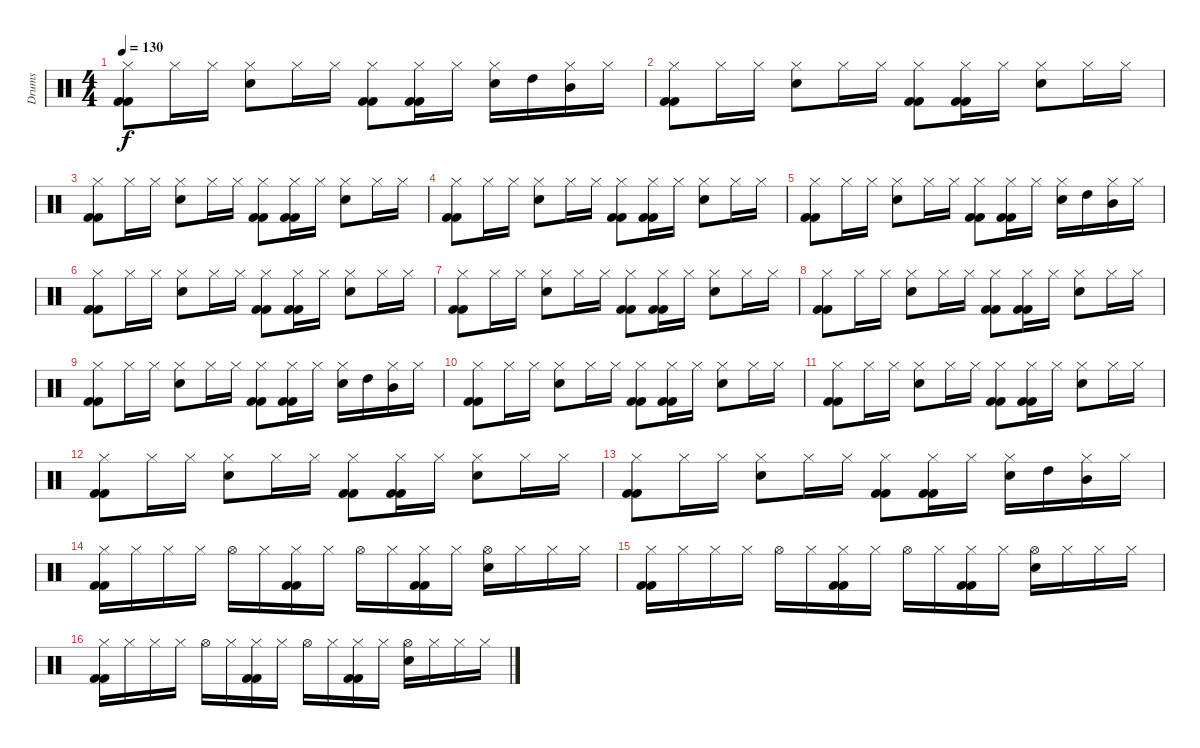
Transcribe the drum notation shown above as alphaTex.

\track ("Drums" "Drums") {instrument percussion}
\staff {score}
\articulation defaults
\ts (4 4)
\tempo 130
\clef neutral
\ks c
("Hi-Hat (closed)" "Kick (hit) 2" "Kick (hit) 2").8{dy f} "Hi-Hat (closed)".16 "Hi-Hat (closed)".16 ("Hi-Hat (closed)" "Electric Snare (hit)").8 "Hi-Hat (closed)".16 "Hi-Hat (closed)".16 ("Hi-Hat (closed)" "Kick (hit) 2" "Kick (hit) 2").8 ("Hi-Hat (closed)" "Kick (hit) 2" "Kick (hit) 2").16 "Hi-Hat (closed)".16 ("Hi-Hat (closed)" "Electric Snare (hit)").16 "High Tom (hit)".16 ("Hi-Hat (closed)" "Mid Tom (hit)").16 "Hi-Hat (closed)".16 |
("Hi-Hat (closed)" "Kick (hit) 2" "Kick (hit) 2").8 "Hi-Hat (closed)".16 "Hi-Hat (closed)".16 ("Hi-Hat (closed)" "Electric Snare (hit)").8 "Hi-Hat (closed)".16 "Hi-Hat (closed)".16 ("Hi-Hat (closed)" "Kick (hit) 2" "Kick (hit) 2").8 ("Hi-Hat (closed)" "Kick (hit) 2" "Kick (hit) 2").16 "Hi-Hat (closed)".16 ("Hi-Hat (closed)" "Electric Snare (hit)").8 "Hi-Hat (closed)".16 "Hi-Hat (closed)".16 |
("Hi-Hat (closed)" "Kick (hit) 2" "Kick (hit) 2").8 "Hi-Hat (closed)".16 "Hi-Hat (closed)".16 ("Hi-Hat (closed)" "Electric Snare (hit)").8 "Hi-Hat (closed)".16 "Hi-Hat (closed)".16 ("Hi-Hat (closed)" "Kick (hit) 2" "Kick (hit) 2").8 ("Hi-Hat (closed)" "Kick (hit) 2" "Kick (hit) 2").16 "Hi-Hat (closed)".16 ("Hi-Hat (closed)" "Electric Snare (hit)").8 "Hi-Hat (closed)".16 "Hi-Hat (closed)".16 |
("Hi-Hat (closed)" "Kick (hit) 2" "Kick (hit) 2").8 "Hi-Hat (closed)".16 "Hi-Hat (closed)".16 ("Hi-Hat (closed)" "Electric Snare (hit)").8 "Hi-Hat (closed)".16 "Hi-Hat (closed)".16 ("Hi-Hat (closed)" "Kick (hit) 2" "Kick (hit) 2").8 ("Hi-Hat (closed)" "Kick (hit) 2" "Kick (hit) 2").16 "Hi-Hat (closed)".16 ("Hi-Hat (closed)" "Electric Snare (hit)").8 "Hi-Hat (closed)".16 "Hi-Hat (closed)".16 |
("Hi-Hat (closed)" "Kick (hit) 2" "Kick (hit) 2").8 "Hi-Hat (closed)".16 "Hi-Hat (closed)".16 ("Hi-Hat (closed)" "Electric Snare (hit)").8 "Hi-Hat (closed)".16 "Hi-Hat (closed)".16 ("Hi-Hat (closed)" "Kick (hit) 2" "Kick (hit) 2").8 ("Hi-Hat (closed)" "Kick (hit) 2" "Kick (hit) 2").16 "Hi-Hat (closed)".16 ("Hi-Hat (closed)" "Electric Snare (hit)").16 "High Tom (hit)".16 ("Hi-Hat (closed)" "Mid Tom (hit)").16 "Hi-Hat (closed)".16 |
("Hi-Hat (closed)" "Kick (hit) 2" "Kick (hit) 2").8 "Hi-Hat (closed)".16 "Hi-Hat (closed)".16 ("Hi-Hat (closed)" "Electric Snare (hit)").8 "Hi-Hat (closed)".16 "Hi-Hat (closed)".16 ("Hi-Hat (closed)" "Kick (hit) 2" "Kick (hit) 2").8 ("Hi-Hat (closed)" "Kick (hit) 2" "Kick (hit) 2").16 "Hi-Hat (closed)".16 ("Hi-Hat (closed)" "Electric Snare (hit)").8 "Hi-Hat (closed)".16 "Hi-Hat (closed)".16 |
("Hi-Hat (closed)" "Kick (hit) 2" "Kick (hit) 2").8 "Hi-Hat (closed)".16 "Hi-Hat (closed)".16 ("Hi-Hat (closed)" "Electric Snare (hit)").8 "Hi-Hat (closed)".16 "Hi-Hat (closed)".16 ("Hi-Hat (closed)" "Kick (hit) 2" "Kick (hit) 2").8 ("Hi-Hat (closed)" "Kick (hit) 2" "Kick (hit) 2").16 "Hi-Hat (closed)".16 ("Hi-Hat (closed)" "Electric Snare (hit)").8 "Hi-Hat (closed)".16 "Hi-Hat (closed)".16 |
("Hi-Hat (closed)" "Kick (hit) 2" "Kick (hit) 2").8 "Hi-Hat (closed)".16 "Hi-Hat (closed)".16 ("Hi-Hat (closed)" "Electric Snare (hit)").8 "Hi-Hat (closed)".16 "Hi-Hat (closed)".16 ("Hi-Hat (closed)" "Kick (hit) 2" "Kick (hit) 2").8 ("Hi-Hat (closed)" "Kick (hit) 2" "Kick (hit) 2").16 "Hi-Hat (closed)".16 ("Hi-Hat (closed)" "Electric Snare (hit)").8 "Hi-Hat (closed)".16 "Hi-Hat (closed)".16 |
("Hi-Hat (closed)" "Kick (hit) 2" "Kick (hit) 2").8 "Hi-Hat (closed)".16 "Hi-Hat (closed)".16 ("Hi-Hat (closed)" "Electric Snare (hit)").8 "Hi-Hat (closed)".16 "Hi-Hat (closed)".16 ("Hi-Hat (closed)" "Kick (hit) 2" "Kick (hit) 2").8 ("Hi-Hat (closed)" "Kick (hit) 2" "Kick (hit) 2").16 "Hi-Hat (closed)".16 ("Hi-Hat (closed)" "Electric Snare (hit)").16 "High Tom (hit)".16 ("Hi-Hat (closed)" "Mid Tom (hit)").16 "Hi-Hat (closed)".16 |
("Hi-Hat (closed)" "Kick (hit) 2" "Kick (hit) 2").8 "Hi-Hat (closed)".16 "Hi-Hat (closed)".16 ("Hi-Hat (closed)" "Electric Snare (hit)").8 "Hi-Hat (closed)".16 "Hi-Hat (closed)".16 ("Hi-Hat (closed)" "Kick (hit) 2" "Kick (hit) 2").8 ("Hi-Hat (closed)" "Kick (hit) 2" "Kick (hit) 2").16 "Hi-Hat (closed)".16 ("Hi-Hat (closed)" "Electric Snare (hit)").8 "Hi-Hat (closed)".16 "Hi-Hat (closed)".16 |
("Hi-Hat (closed)" "Kick (hit) 2" "Kick (hit) 2").8 "Hi-Hat (closed)".16 "Hi-Hat (closed)".16 ("Hi-Hat (closed)" "Electric Snare (hit)").8 "Hi-Hat (closed)".16 "Hi-Hat (closed)".16 ("Hi-Hat (closed)" "Kick (hit) 2" "Kick (hit) 2").8 ("Hi-Hat (closed)" "Kick (hit) 2" "Kick (hit) 2").16 "Hi-Hat (closed)".16 ("Hi-Hat (closed)" "Electric Snare (hit)").8 "Hi-Hat (closed)".16 "Hi-Hat (closed)".16 |
("Hi-Hat (closed)" "Kick (hit) 2" "Kick (hit) 2").8 "Hi-Hat (closed)".16 "Hi-Hat (closed)".16 ("Hi-Hat (closed)" "Electric Snare (hit)").8 "Hi-Hat (closed)".16 "Hi-Hat (closed)".16 ("Hi-Hat (closed)" "Kick (hit) 2" "Kick (hit) 2").8 ("Hi-Hat (closed)" "Kick (hit) 2" "Kick (hit) 2").16 "Hi-Hat (closed)".16 ("Hi-Hat (closed)" "Electric Snare (hit)").8 "Hi-Hat (closed)".16 "Hi-Hat (closed)".16 |
("Hi-Hat (closed)" "Kick (hit) 2" "Kick (hit) 2").8 "Hi-Hat (closed)".16 "Hi-Hat (closed)".16 ("Hi-Hat (closed)" "Electric Snare (hit)").8 "Hi-Hat (closed)".16 "Hi-Hat (closed)".16 ("Hi-Hat (closed)" "Kick (hit) 2" "Kick (hit) 2").8 ("Hi-Hat (closed)" "Kick (hit) 2" "Kick (hit) 2").16 "Hi-Hat (closed)".16 ("Hi-Hat (closed)" "Electric Snare (hit)").16 "High Tom (hit)".16 ("Hi-Hat (closed)" "Mid Tom (hit)").16 "Hi-Hat (closed)".16 |
("Hi-Hat (closed)" "Kick (hit) 2" "Kick (hit) 2").16 "Hi-Hat (closed)".16 "Hi-Hat (closed)".16 "Hi-Hat (closed)".16 "Hi-Hat (open)".16 "Hi-Hat (closed)".16 ("Hi-Hat (closed)" "Kick (hit) 2" "Kick (hit) 2").16 "Hi-Hat (closed)".16 "Hi-Hat (open)".16 "Hi-Hat (closed)".16 ("Hi-Hat (closed)" "Kick (hit) 2" "Kick (hit) 2").16 "Hi-Hat (closed)".16 ("Hi-Hat (open)" "Electric Snare (hit)").16 "Hi-Hat (closed)".16 "Hi-Hat (closed)".16 "Hi-Hat (closed)".16 |
("Hi-Hat (closed)" "Kick (hit) 2" "Kick (hit) 2").16 "Hi-Hat (closed)".16 "Hi-Hat (closed)".16 "Hi-Hat (closed)".16 "Hi-Hat (open)".16 "Hi-Hat (closed)".16 ("Hi-Hat (closed)" "Kick (hit) 2" "Kick (hit) 2").16 "Hi-Hat (closed)".16 "Hi-Hat (open)".16 "Hi-Hat (closed)".16 ("Hi-Hat (closed)" "Kick (hit) 2" "Kick (hit) 2").16 "Hi-Hat (closed)".16 ("Hi-Hat (open)" "Electric Snare (hit)").16 "Hi-Hat (closed)".16 "Hi-Hat (closed)".16 "Hi-Hat (closed)".16 |
("Hi-Hat (closed)" "Kick (hit) 2" "Kick (hit) 2").16 "Hi-Hat (closed)".16 "Hi-Hat (closed)".16 "Hi-Hat (closed)".16 "Hi-Hat (open)".16 "Hi-Hat (closed)".16 ("Hi-Hat (closed)" "Kick (hit) 2" "Kick (hit) 2").16 "Hi-Hat (closed)".16 "Hi-Hat (open)".16 "Hi-Hat (closed)".16 ("Hi-Hat (closed)" "Kick (hit) 2" "Kick (hit) 2").16 "Hi-Hat (closed)".16 ("Hi-Hat (open)" "Electric Snare (hit)").16 "Hi-Hat (closed)".16 "Hi-Hat (closed)".16 "Hi-Hat (closed)".16
